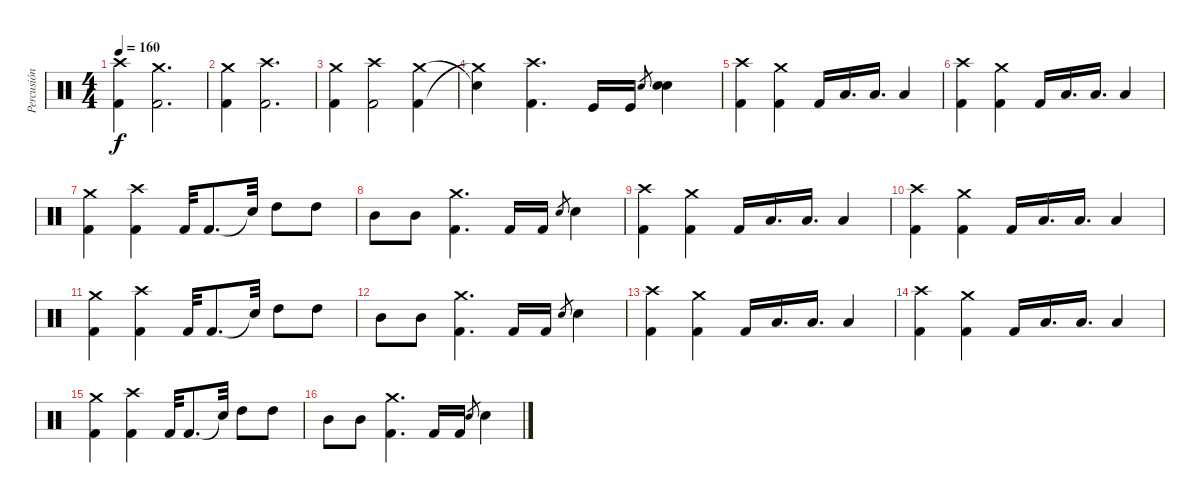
\track ("Percusión" "Percusión") {instrument percussion}
\staff {score}
\articulation defaults
\ts (4 4)
\tempo 160
\clef neutral
\ks c
("Kick (hit) 2" "Crash high (hit)").4{dy f} ("Kick (hit) 2" "Crash medium (hit)").2{d} |
("Kick (hit) 2" "Crash medium (hit)").4 ("Kick (hit) 2" "Crash high (hit)").2{d} |
("Kick (hit) 2" "Crash medium (hit)").4 ("Kick (hit) 2" "Crash high (hit)").2 ("Kick (hit) 2" "Crash medium (hit)").4 |
("Crash medium (hit)"{t} "Snare (hit)"{t}).4 ("Kick (hit) 2" "Crash high (hit)").4{d} "Kick (hit)".16 "Kick (hit)".16 "Snare (hit) 2".8{gr} ("Snare (hit) 2" "Snare (hit) 2").4 |
("Kick (hit) 2" "Crash high (hit)").4 ("Kick (hit) 2" "Crash medium (hit)").4 "Kick (hit) 2".16 "Low Tom (hit)".16{d} "Low Tom (hit)".16{d} "Low Tom (hit)".4 |
("Kick (hit) 2" "Crash high (hit)").4 ("Kick (hit) 2" "Crash medium (hit)").4 "Kick (hit) 2".16 "Low Floor Tom (hit)".16{d} "Low Floor Tom (hit)".16{d} "Low Floor Tom (hit)".4 |
("Kick (hit) 2" "Crash medium (hit)").4 ("Kick (hit) 2" "Crash high (hit)").4 "Kick (hit) 2".32 "Kick (hit) 2".8{d} "Snare (hit)"{t}.32 "High Tom (hit)".8 "High Tom (hit)".8 |
"Mid Tom (hit)".8 "Mid Tom (hit)".8 ("Kick (hit) 2" "Crash medium (hit)").4{d} "Kick (hit) 2".16 "Kick (hit) 2".16 "Snare (hit) 2".8{gr} "Snare (hit) 2".4 |
("Kick (hit) 2" "Crash high (hit)").4 ("Kick (hit) 2" "Crash medium (hit)").4 "Kick (hit) 2".16 "Low Tom (hit)".16{d} "Low Tom (hit)".16{d} "Low Tom (hit)".4 |
("Kick (hit) 2" "Crash high (hit)").4 ("Kick (hit) 2" "Crash medium (hit)").4 "Kick (hit) 2".16 "Low Floor Tom (hit)".16{d} "Low Floor Tom (hit)".16{d} "Low Floor Tom (hit)".4 |
("Kick (hit) 2" "Crash medium (hit)").4 ("Kick (hit) 2" "Crash high (hit)").4 "Kick (hit) 2".32 "Kick (hit) 2".8{d} "Snare (hit)"{t}.32 "High Tom (hit)".8 "High Tom (hit)".8 |
"Mid Tom (hit)".8 "Mid Tom (hit)".8 ("Kick (hit) 2" "Crash medium (hit)").4{d} "Kick (hit) 2".16 "Kick (hit) 2".16 "Snare (hit) 2".8{gr} "Snare (hit) 2".4 |
("Kick (hit) 2" "Crash high (hit)").4 ("Kick (hit) 2" "Crash medium (hit)").4 "Kick (hit) 2".16 "Low Tom (hit)".16{d} "Low Tom (hit)".16{d} "Low Tom (hit)".4 |
("Kick (hit) 2" "Crash high (hit)").4 ("Kick (hit) 2" "Crash medium (hit)").4 "Kick (hit) 2".16 "Low Floor Tom (hit)".16{d} "Low Floor Tom (hit)".16{d} "Low Floor Tom (hit)".4 |
("Kick (hit) 2" "Crash medium (hit)").4 ("Kick (hit) 2" "Crash high (hit)").4 "Kick (hit) 2".32 "Kick (hit) 2".8{d} "Snare (hit)"{t}.32 "High Tom (hit)".8 "High Tom (hit)".8 |
"Mid Tom (hit)".8 "Mid Tom (hit)".8 ("Kick (hit) 2" "Crash medium (hit)").4{d} "Kick (hit) 2".16 "Kick (hit) 2".16 "Snare (hit) 2".8{gr} "Snare (hit) 2".4
